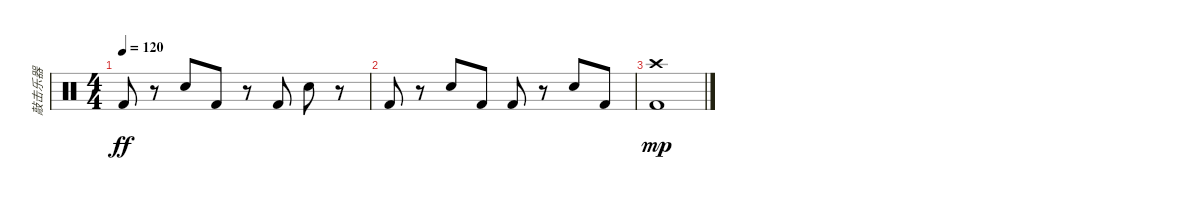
\track ("敲击乐器" "敲击乐器") {instrument percussion}
\staff {score}
\articulation defaults
\ts (4 4)
\tempo 120
\clef neutral
\ks c "Kick (hit) 2".8{dy ff}
r.8 "Electric Snare (hit)".8 "Kick (hit) 2".8 r.8 "Kick (hit) 2".8 "Electric Snare (hit)".8 r.8 |
"Kick (hit) 2".8 r.8 "Electric Snare (hit)".8 "Kick (hit) 2".8 "Kick (hit) 2".8 r.8 "Electric Snare (hit)".8 "Kick (hit) 2".8 |
("Crash high (hit)" "Kick (hit) 2").1{dy mp}
